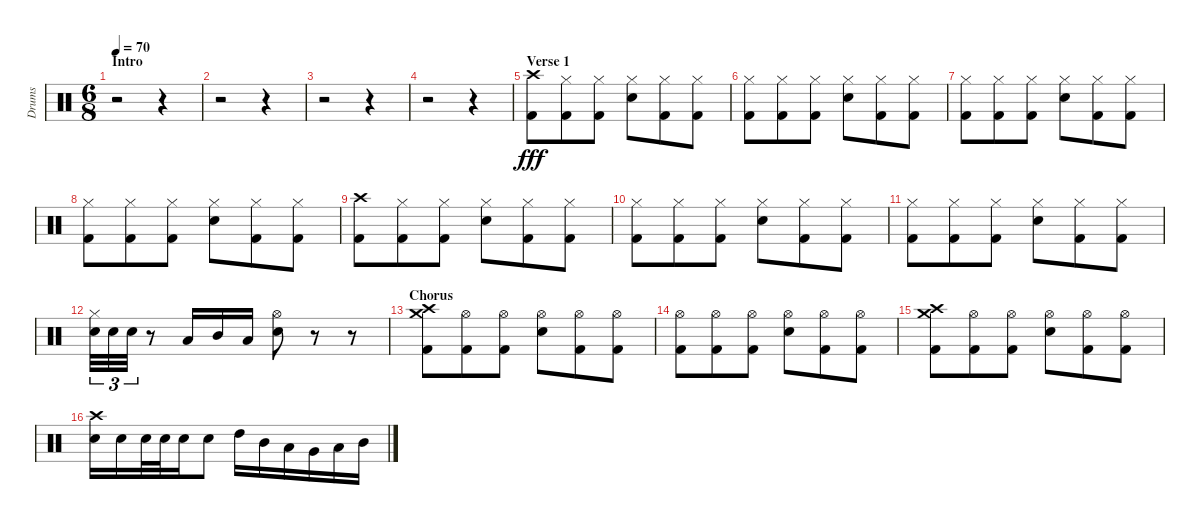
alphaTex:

\track ("Drums" "Drums") {instrument percussion}
\staff {score}
\articulation defaults
\ts (6 8)
\section ("" "Intro")
\tempo 70
\clef neutral
\ks c
r.2{dy fff} r.4 |
r.2 r.4 |
r.2 r.4 |
r.2 r.4 |
\section ("" "Verse 1")
("Crash high (hit)" "Kick (hit) 2").8 ("Hi-Hat (closed)" "Kick (hit) 2").8 ("Hi-Hat (closed)" "Kick (hit) 2").8 ("Hi-Hat (closed)" "Electric Snare (hit)").8 ("Hi-Hat (closed)" "Kick (hit) 2").8 ("Hi-Hat (closed)" "Kick (hit) 2").8 |
("Hi-Hat (closed)" "Kick (hit) 2").8 ("Hi-Hat (closed)" "Kick (hit) 2").8 ("Hi-Hat (closed)" "Kick (hit) 2").8 ("Hi-Hat (closed)" "Electric Snare (hit)").8 ("Hi-Hat (closed)" "Kick (hit) 2").8 ("Hi-Hat (closed)" "Kick (hit) 2").8 |
("Hi-Hat (closed)" "Kick (hit) 2").8 ("Hi-Hat (closed)" "Kick (hit) 2").8 ("Hi-Hat (closed)" "Kick (hit) 2").8 ("Hi-Hat (closed)" "Electric Snare (hit)").8 ("Hi-Hat (closed)" "Kick (hit) 2").8 ("Hi-Hat (closed)" "Kick (hit) 2").8 |
("Hi-Hat (closed)" "Kick (hit) 2").8 ("Hi-Hat (closed)" "Kick (hit) 2").8 ("Hi-Hat (closed)" "Kick (hit) 2").8 ("Hi-Hat (closed)" "Electric Snare (hit)").8 ("Hi-Hat (closed)" "Kick (hit) 2").8 ("Hi-Hat (closed)" "Kick (hit) 2").8 |
("Crash high (hit)" "Kick (hit) 2").8 ("Hi-Hat (closed)" "Kick (hit) 2").8 ("Hi-Hat (closed)" "Kick (hit) 2").8 ("Hi-Hat (closed)" "Electric Snare (hit)").8 ("Hi-Hat (closed)" "Kick (hit) 2").8 ("Hi-Hat (closed)" "Kick (hit) 2").8 |
("Hi-Hat (closed)" "Kick (hit) 2").8 ("Hi-Hat (closed)" "Kick (hit) 2").8 ("Hi-Hat (closed)" "Kick (hit) 2").8 ("Hi-Hat (closed)" "Electric Snare (hit)").8 ("Hi-Hat (closed)" "Kick (hit) 2").8 ("Hi-Hat (closed)" "Kick (hit) 2").8 |
("Hi-Hat (closed)" "Kick (hit) 2").8 ("Hi-Hat (closed)" "Kick (hit) 2").8 ("Hi-Hat (closed)" "Kick (hit) 2").8 ("Hi-Hat (closed)" "Electric Snare (hit)").8 ("Hi-Hat (closed)" "Kick (hit) 2").8 ("Hi-Hat (closed)" "Kick (hit) 2").8 |
("Hi-Hat (closed)" "Electric Snare (hit)").32{tu (3 2)} "Electric Snare (hit)".32{tu (3 2)} "Electric Snare (hit)".32{tu (3 2)} r.8 "Low Tom (hit)".16 "Mid Tom (hit)".16 "Low Tom (hit)".16 ("Hi-Hat (open)" "Electric Snare (hit)").8 r.8 r.8 |
\section ("" "Chorus")
("Crash high (hit)" "Crash medium (hit)" "Kick (hit) 2").8 ("Hi-Hat (open)" "Kick (hit) 2").8 ("Hi-Hat (open)" "Kick (hit) 2").8 ("Hi-Hat (open)" "Electric Snare (hit)").8 ("Hi-Hat (open)" "Kick (hit) 2").8 ("Hi-Hat (open)" "Kick (hit) 2").8 |
("Hi-Hat (open)" "Kick (hit) 2").8 ("Hi-Hat (open)" "Kick (hit) 2").8 ("Hi-Hat (open)" "Kick (hit) 2").8 ("Hi-Hat (open)" "Electric Snare (hit)").8 ("Hi-Hat (open)" "Kick (hit) 2").8 ("Hi-Hat (open)" "Kick (hit) 2").8 |
("Crash high (hit)" "Crash medium (hit)" "Kick (hit) 2").8 ("Hi-Hat (open)" "Kick (hit) 2").8 ("Hi-Hat (open)" "Kick (hit) 2").8 ("Hi-Hat (open)" "Electric Snare (hit)").8 ("Hi-Hat (open)" "Kick (hit) 2").8 ("Hi-Hat (open)" "Kick (hit) 2").8 |
("Crash high (hit)" "Electric Snare (hit)").16 "Electric Snare (hit)".16 "Electric Snare (hit)".32 "Electric Snare (hit)".32 "Electric Snare (hit)".16 "Electric Snare (hit)".8 "High Tom (hit)".16 "Mid Tom (hit)".16 "Low Tom (hit)".16 "Very Low Tom (hit)".16 "Low Tom (hit)".16 "Mid Tom (hit)".16
